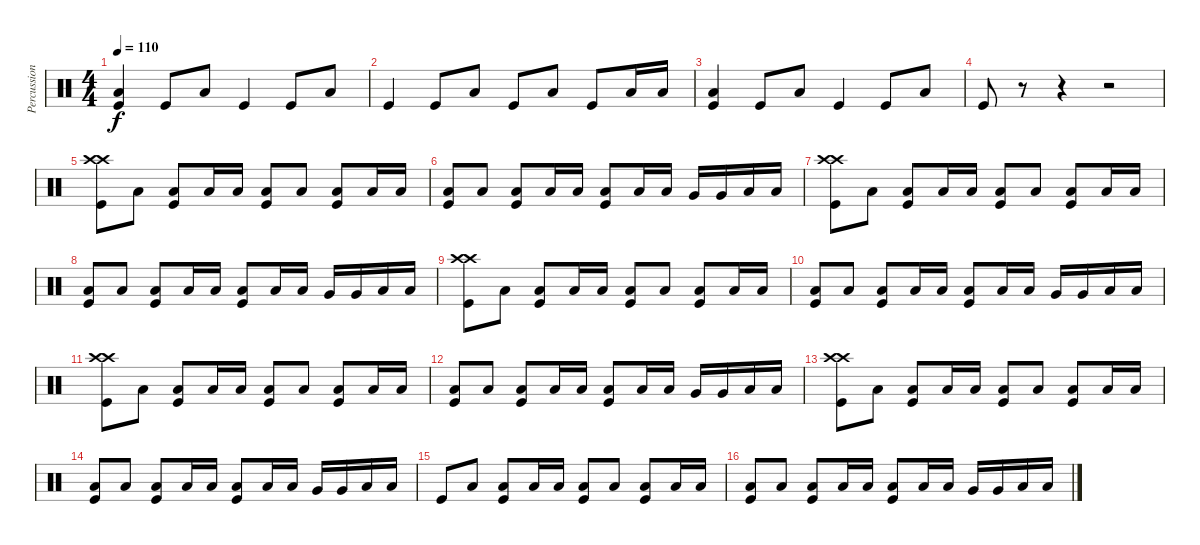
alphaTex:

\track ("Percussion" "Percussion") {instrument percussion}
\staff {score}
\articulation defaults
\ts (4 4)
\tempo 110
\clef neutral
\ks c
("Kick (hit)" "Low Floor Tom (hit)").4{dy f} "Kick (hit)".8 "Low Floor Tom (hit)".8 "Kick (hit)".4 "Kick (hit)".8 "Low Floor Tom (hit)".8 |
"Kick (hit)".4 "Kick (hit)".8 "Low Floor Tom (hit)".8 "Kick (hit)".8 "Low Floor Tom (hit)".8 "Kick (hit)".8 "Low Floor Tom (hit)".16 "Low Floor Tom (hit)".16 |
("Kick (hit)" "Low Floor Tom (hit)").4 "Kick (hit)".8 "Low Floor Tom (hit)".8 "Kick (hit)".4 "Kick (hit)".8 "Low Floor Tom (hit)".8 |
"Kick (hit)".8 r.8 r.4 r.2 |
("Crash high (hit)" "Kick (hit)" "Crash high (hit)").8 "Low Floor Tom (hit)".8 ("Kick (hit)" "Low Floor Tom (hit)").8 "Low Floor Tom (hit)".16 "Low Floor Tom (hit)".16 ("Kick (hit)" "Low Floor Tom (hit)").8 "Low Floor Tom (hit)".8 ("Low Floor Tom (hit)" "Kick (hit)").8 "Low Floor Tom (hit)".16 "Low Floor Tom (hit)".16 |
("Kick (hit)" "Low Floor Tom (hit)").8 "Low Floor Tom (hit)".8 ("Low Floor Tom (hit)" "Kick (hit)").8 "Low Floor Tom (hit)".16 "Low Floor Tom (hit)".16 ("Kick (hit)" "Low Floor Tom (hit)").8 "Low Tom (hit)".16 "Low Tom (hit)".16 "Very Low Tom (hit)".16 "Very Low Tom (hit)".16 "Low Floor Tom (hit)".16 "Low Floor Tom (hit)".16 |
("Crash high (hit)" "Kick (hit)" "Crash high (hit)").8 "Low Floor Tom (hit)".8 ("Kick (hit)" "Low Floor Tom (hit)").8 "Low Floor Tom (hit)".16 "Low Floor Tom (hit)".16 ("Kick (hit)" "Low Floor Tom (hit)").8 "Low Floor Tom (hit)".8 ("Low Floor Tom (hit)" "Kick (hit)").8 "Low Floor Tom (hit)".16 "Low Floor Tom (hit)".16 |
("Kick (hit)" "Low Floor Tom (hit)").8 "Low Floor Tom (hit)".8 ("Low Floor Tom (hit)" "Kick (hit)").8 "Low Floor Tom (hit)".16 "Low Floor Tom (hit)".16 ("Kick (hit)" "Low Floor Tom (hit)").8 "Low Tom (hit)".16 "Low Tom (hit)".16 "Very Low Tom (hit)".16 "Very Low Tom (hit)".16 "Low Floor Tom (hit)".16 "Low Floor Tom (hit)".16 |
("Crash high (hit)" "Kick (hit)" "Crash high (hit)").8 "Low Floor Tom (hit)".8 ("Kick (hit)" "Low Floor Tom (hit)").8 "Low Floor Tom (hit)".16 "Low Floor Tom (hit)".16 ("Kick (hit)" "Low Floor Tom (hit)").8 "Low Floor Tom (hit)".8 ("Low Floor Tom (hit)" "Kick (hit)").8 "Low Floor Tom (hit)".16 "Low Floor Tom (hit)".16 |
("Kick (hit)" "Low Floor Tom (hit)").8 "Low Floor Tom (hit)".8 ("Low Floor Tom (hit)" "Kick (hit)").8 "Low Floor Tom (hit)".16 "Low Floor Tom (hit)".16 ("Kick (hit)" "Low Floor Tom (hit)").8 "Low Tom (hit)".16 "Low Tom (hit)".16 "Very Low Tom (hit)".16 "Very Low Tom (hit)".16 "Low Floor Tom (hit)".16 "Low Floor Tom (hit)".16 |
("Crash high (hit)" "Kick (hit)" "Crash high (hit)").8 "Low Floor Tom (hit)".8 ("Kick (hit)" "Low Floor Tom (hit)").8 "Low Floor Tom (hit)".16 "Low Floor Tom (hit)".16 ("Kick (hit)" "Low Floor Tom (hit)").8 "Low Floor Tom (hit)".8 ("Low Floor Tom (hit)" "Kick (hit)").8 "Low Floor Tom (hit)".16 "Low Floor Tom (hit)".16 |
("Kick (hit)" "Low Floor Tom (hit)").8 "Low Floor Tom (hit)".8 ("Low Floor Tom (hit)" "Kick (hit)").8 "Low Floor Tom (hit)".16 "Low Floor Tom (hit)".16 ("Kick (hit)" "Low Floor Tom (hit)").8 "Low Tom (hit)".16 "Low Tom (hit)".16 "Very Low Tom (hit)".16 "Very Low Tom (hit)".16 "Low Floor Tom (hit)".16 "Low Floor Tom (hit)".16 |
("Crash high (hit)" "Kick (hit)" "Crash high (hit)").8 "Low Floor Tom (hit)".8 ("Kick (hit)" "Low Floor Tom (hit)").8 "Low Floor Tom (hit)".16 "Low Floor Tom (hit)".16 ("Kick (hit)" "Low Floor Tom (hit)").8 "Low Floor Tom (hit)".8 ("Low Floor Tom (hit)" "Kick (hit)").8 "Low Floor Tom (hit)".16 "Low Floor Tom (hit)".16 |
("Kick (hit)" "Low Floor Tom (hit)").8 "Low Floor Tom (hit)".8 ("Low Floor Tom (hit)" "Kick (hit)").8 "Low Floor Tom (hit)".16 "Low Floor Tom (hit)".16 ("Kick (hit)" "Low Floor Tom (hit)").8 "Low Tom (hit)".16 "Low Tom (hit)".16 "Very Low Tom (hit)".16 "Very Low Tom (hit)".16 "Low Floor Tom (hit)".16 "Low Floor Tom (hit)".16 |
"Kick (hit)".8 "Low Floor Tom (hit)".8 ("Kick (hit)" "Low Floor Tom (hit)").8 "Low Floor Tom (hit)".16 "Low Floor Tom (hit)".16 ("Kick (hit)" "Low Floor Tom (hit)").8 "Low Floor Tom (hit)".8 ("Low Floor Tom (hit)" "Kick (hit)").8 "Low Floor Tom (hit)".16 "Low Floor Tom (hit)".16 |
("Kick (hit)" "Low Floor Tom (hit)").8 "Low Floor Tom (hit)".8 ("Low Floor Tom (hit)" "Kick (hit)").8 "Low Floor Tom (hit)".16 "Low Floor Tom (hit)".16 ("Kick (hit)" "Low Floor Tom (hit)").8 "Low Tom (hit)".16 "Low Tom (hit)".16 "Very Low Tom (hit)".16 "Very Low Tom (hit)".16 "Low Floor Tom (hit)".16 "Low Floor Tom (hit)".16
